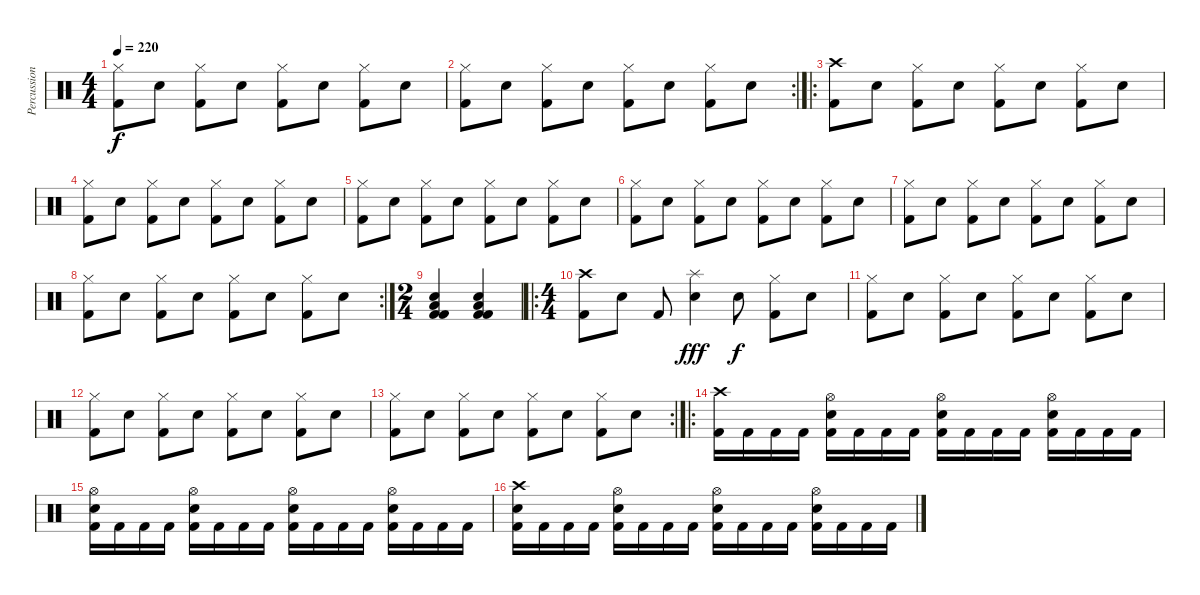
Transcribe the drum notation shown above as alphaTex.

\track ("Percussion" "Percussion") {instrument percussion}
\staff {score}
\articulation defaults
\ts (4 4)
\tempo 220
\clef neutral
\ks c
("Hi-Hat (closed)" "Kick (hit) 2").8{dy f} "Electric Snare (hit)".8 ("Hi-Hat (closed)" "Kick (hit) 2").8 "Electric Snare (hit)".8 ("Hi-Hat (closed)" "Kick (hit) 2").8 "Electric Snare (hit)".8 ("Hi-Hat (closed)" "Kick (hit) 2").8 "Electric Snare (hit)".8 |
\rc 2
("Hi-Hat (closed)" "Kick (hit) 2").8 "Electric Snare (hit)".8 ("Hi-Hat (closed)" "Kick (hit) 2").8 "Electric Snare (hit)".8 ("Hi-Hat (closed)" "Kick (hit) 2").8 "Electric Snare (hit)".8 ("Hi-Hat (closed)" "Kick (hit) 2").8 "Electric Snare (hit)".8 |
\ro
("Crash high (hit)" "Kick (hit) 2").8 "Electric Snare (hit)".8 ("Hi-Hat (closed)" "Kick (hit) 2").8 "Electric Snare (hit)".8 ("Hi-Hat (closed)" "Kick (hit) 2").8 "Electric Snare (hit)".8 ("Hi-Hat (closed)" "Kick (hit) 2").8 "Electric Snare (hit)".8 |
("Hi-Hat (closed)" "Kick (hit) 2").8 "Electric Snare (hit)".8 ("Hi-Hat (closed)" "Kick (hit) 2").8 "Electric Snare (hit)".8 ("Hi-Hat (closed)" "Kick (hit) 2").8 "Electric Snare (hit)".8 ("Hi-Hat (closed)" "Kick (hit) 2").8 "Electric Snare (hit)".8 |
("Hi-Hat (closed)" "Kick (hit) 2").8 "Electric Snare (hit)".8 ("Hi-Hat (closed)" "Kick (hit) 2").8 "Electric Snare (hit)".8 ("Hi-Hat (closed)" "Kick (hit) 2").8 "Electric Snare (hit)".8 ("Hi-Hat (closed)" "Kick (hit) 2").8 "Electric Snare (hit)".8 |
("Hi-Hat (closed)" "Kick (hit) 2").8 "Electric Snare (hit)".8 ("Hi-Hat (closed)" "Kick (hit) 2").8 "Electric Snare (hit)".8 ("Hi-Hat (closed)" "Kick (hit) 2").8 "Electric Snare (hit)".8 ("Hi-Hat (closed)" "Kick (hit) 2").8 "Electric Snare (hit)".8 |
("Hi-Hat (closed)" "Kick (hit) 2").8 "Electric Snare (hit)".8 ("Hi-Hat (closed)" "Kick (hit) 2").8 "Electric Snare (hit)".8 ("Hi-Hat (closed)" "Kick (hit) 2").8 "Electric Snare (hit)".8 ("Hi-Hat (closed)" "Kick (hit) 2").8 "Electric Snare (hit)".8 |
\rc 2
("Hi-Hat (closed)" "Kick (hit) 2").8 "Electric Snare (hit)".8 ("Hi-Hat (closed)" "Kick (hit) 2").8 "Electric Snare (hit)".8 ("Hi-Hat (closed)" "Kick (hit) 2").8 "Electric Snare (hit)".8 ("Hi-Hat (closed)" "Kick (hit) 2").8 "Electric Snare (hit)".8 |
\ts (2 4)
("Electric Snare (hit)" "Low Tom (hit)" "Kick (hit) 2" "Kick (hit) 2").4 ("Electric Snare (hit)" "Low Tom (hit)" "Kick (hit) 2" "Kick (hit) 2").4 |
\ro
\ts (4 4)
("Crash high (hit)" "Kick (hit) 2").8 "Electric Snare (hit)".8 "Kick (hit) 2".8 ("Splash (hit)" "Electric Snare (hit)").4{dy fff} "Electric Snare (hit)".8{dy f} ("Hi-Hat (closed)" "Kick (hit) 2").8 "Electric Snare (hit)".8 |
("Hi-Hat (closed)" "Kick (hit) 2").8 "Electric Snare (hit)".8 ("Hi-Hat (closed)" "Kick (hit) 2").8 "Electric Snare (hit)".8 ("Hi-Hat (closed)" "Kick (hit) 2").8 "Electric Snare (hit)".8 ("Hi-Hat (closed)" "Kick (hit) 2").8 "Electric Snare (hit)".8 |
("Hi-Hat (closed)" "Kick (hit) 2").8 "Electric Snare (hit)".8 ("Hi-Hat (closed)" "Kick (hit) 2").8 "Electric Snare (hit)".8 ("Hi-Hat (closed)" "Kick (hit) 2").8 "Electric Snare (hit)".8 ("Hi-Hat (closed)" "Kick (hit) 2").8 "Electric Snare (hit)".8 |
\rc 2
("Hi-Hat (closed)" "Kick (hit) 2").8 "Electric Snare (hit)".8 ("Hi-Hat (closed)" "Kick (hit) 2").8 "Electric Snare (hit)".8 ("Hi-Hat (closed)" "Kick (hit) 2").8 "Electric Snare (hit)".8 ("Hi-Hat (closed)" "Kick (hit) 2").8 "Electric Snare (hit)".8 |
\ro
("Crash high (hit)" "Kick (hit) 2").16 "Kick (hit) 2".16 "Kick (hit) 2".16 "Kick (hit) 2".16 ("Hi-Hat (open)" "Electric Snare (hit)" "Kick (hit) 2").16 "Kick (hit) 2".16 "Kick (hit) 2".16 "Kick (hit) 2".16 ("Hi-Hat (open)" "Electric Snare (hit)" "Kick (hit) 2").16 "Kick (hit) 2".16 "Kick (hit) 2".16 "Kick (hit) 2".16 ("Hi-Hat (open)" "Electric Snare (hit)" "Kick (hit) 2").16 "Kick (hit) 2".16 "Kick (hit) 2".16 "Kick (hit) 2".16 |
("Hi-Hat (open)" "Electric Snare (hit)" "Kick (hit) 2").16 "Kick (hit) 2".16 "Kick (hit) 2".16 "Kick (hit) 2".16 ("Hi-Hat (open)" "Electric Snare (hit)" "Kick (hit) 2").16 "Kick (hit) 2".16 "Kick (hit) 2".16 "Kick (hit) 2".16 ("Hi-Hat (open)" "Electric Snare (hit)" "Kick (hit) 2").16 "Kick (hit) 2".16 "Kick (hit) 2".16 "Kick (hit) 2".16 ("Hi-Hat (open)" "Electric Snare (hit)" "Kick (hit) 2").16 "Kick (hit) 2".16 "Kick (hit) 2".16 "Kick (hit) 2".16 |
("Crash high (hit)" "Electric Snare (hit)" "Kick (hit) 2").16 "Kick (hit) 2".16 "Kick (hit) 2".16 "Kick (hit) 2".16 ("Hi-Hat (open)" "Electric Snare (hit)" "Kick (hit) 2").16 "Kick (hit) 2".16 "Kick (hit) 2".16 "Kick (hit) 2".16 ("Hi-Hat (open)" "Electric Snare (hit)" "Kick (hit) 2").16 "Kick (hit) 2".16 "Kick (hit) 2".16 "Kick (hit) 2".16 ("Hi-Hat (open)" "Electric Snare (hit)" "Kick (hit) 2").16 "Kick (hit) 2".16 "Kick (hit) 2".16 "Kick (hit) 2".16
